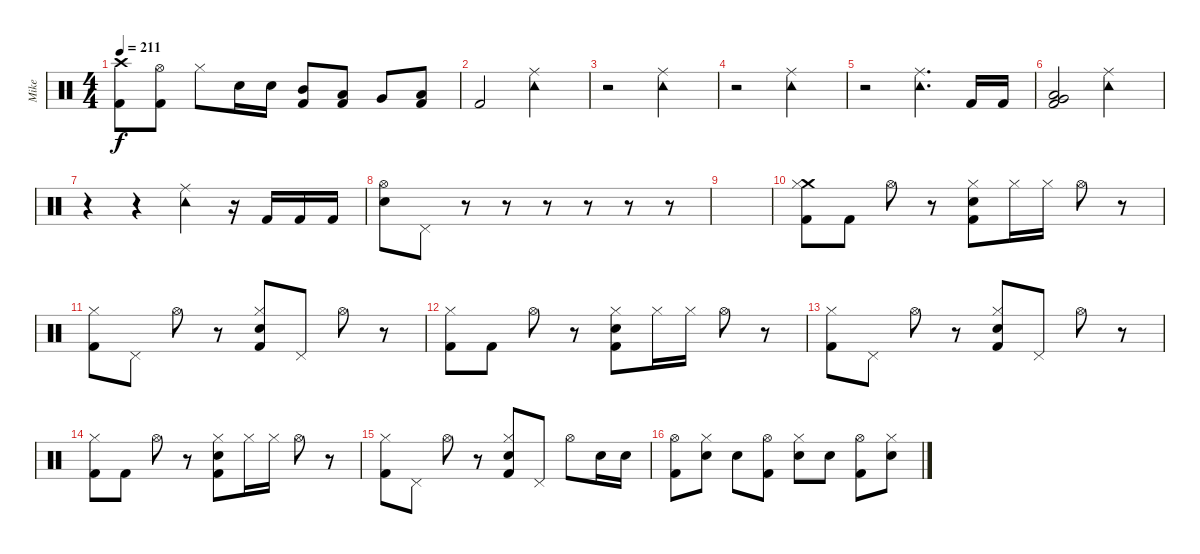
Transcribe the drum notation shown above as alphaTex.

\track ("Mike" "Mike") {instrument percussion}
\staff {score}
\articulation defaults
\ts (4 4)
\tempo 211
\clef neutral
\ks c
("Crash high (hit)" "Kick (hit) 2").8{dy f} ("Hi-Hat (open)" "Kick (hit) 2").8 "Hi-Hat (closed)".8 "Electric Snare (hit)".16 "Electric Snare (hit)".16 ("Mid Tom (hit)" "Kick (hit) 2").8 ("Low Tom (hit)" "Kick (hit) 2").8 "Very Low Tom (hit)".8 ("Low Tom (hit)" "Kick (hit) 2").8 |
"Kick (hit) 2".2 ("Ride (middle)" "Tambourine (hit)").2 |
r.2 ("Ride (middle)" "Tambourine (hit)").2 |
r.2 ("Ride (middle)" "Tambourine (hit)").2 |
r.2 ("Ride (middle)" "Tambourine (hit)").4{d} "Kick (hit) 2".16 "Kick (hit) 2".16 |
("Low Floor Tom (hit)" "Very Low Tom (hit)" "Kick (hit) 2").2 ("Ride (middle)" "Tambourine (hit)").2 |
r.4 r.4 ("Tambourine (hit)" "Ride (middle)").4 r.16 "Kick (hit) 2".16 "Kick (hit) 2".16 "Kick (hit) 2".16 |
("Hi-Hat (open)" "Electric Snare (hit)").8 "Pedal Hi-Hat (hit)".8 r.8 r.8 r.8 r.8 r.8 r.8 |
|
("Crash medium (hit)" "Hi-Hat (closed)" "Kick (hit) 2").8 "Kick (hit) 2".8 "Hi-Hat (open)".8 r.8 ("Hi-Hat (closed)" "Electric Snare (hit)" "Kick (hit) 2").8 "Hi-Hat (closed)".16 "Hi-Hat (closed)".16 "Hi-Hat (open)".8 r.8 |
("Hi-Hat (closed)" "Kick (hit) 2").8 "Pedal Hi-Hat (hit)".8 "Hi-Hat (open)".8 r.8 ("Hi-Hat (closed)" "Electric Snare (hit)" "Kick (hit) 2").8 "Pedal Hi-Hat (hit)".8 "Hi-Hat (open)".8 r.8 |
("Hi-Hat (closed)" "Kick (hit) 2").8 "Kick (hit) 2".8 "Hi-Hat (open)".8 r.8 ("Hi-Hat (closed)" "Electric Snare (hit)" "Kick (hit) 2").8 "Hi-Hat (closed)".16 "Hi-Hat (closed)".16 "Hi-Hat (open)".8 r.8 |
("Hi-Hat (closed)" "Kick (hit) 2").8 "Pedal Hi-Hat (hit)".8 "Hi-Hat (open)".8 r.8 ("Hi-Hat (closed)" "Electric Snare (hit)" "Kick (hit) 2").8 "Pedal Hi-Hat (hit)".8 "Hi-Hat (open)".8 r.8 |
("Hi-Hat (closed)" "Kick (hit) 2").8 "Kick (hit) 2".8 "Hi-Hat (open)".8 r.8 ("Hi-Hat (closed)" "Electric Snare (hit)" "Kick (hit) 2").8 "Hi-Hat (closed)".16 "Hi-Hat (closed)".16 "Hi-Hat (open)".8 r.8 |
("Hi-Hat (closed)" "Kick (hit) 2").8 "Pedal Hi-Hat (hit)".8 "Hi-Hat (open)".8 r.8 ("Hi-Hat (closed)" "Electric Snare (hit)" "Kick (hit) 2").8 "Pedal Hi-Hat (hit)".8 "Hi-Hat (open)".8 "Electric Snare (hit)".16 "Electric Snare (hit)".16 |
("Hi-Hat (open)" "Kick (hit) 2").8 ("Hi-Hat (closed)" "Electric Snare (hit)").8 "Electric Snare (hit)".8 ("Hi-Hat (open)" "Kick (hit) 2").8 ("Hi-Hat (closed)" "Electric Snare (hit)").8 "Electric Snare (hit)".8 ("Hi-Hat (open)" "Kick (hit) 2").8 ("Hi-Hat (closed)" "Electric Snare (hit)").8
